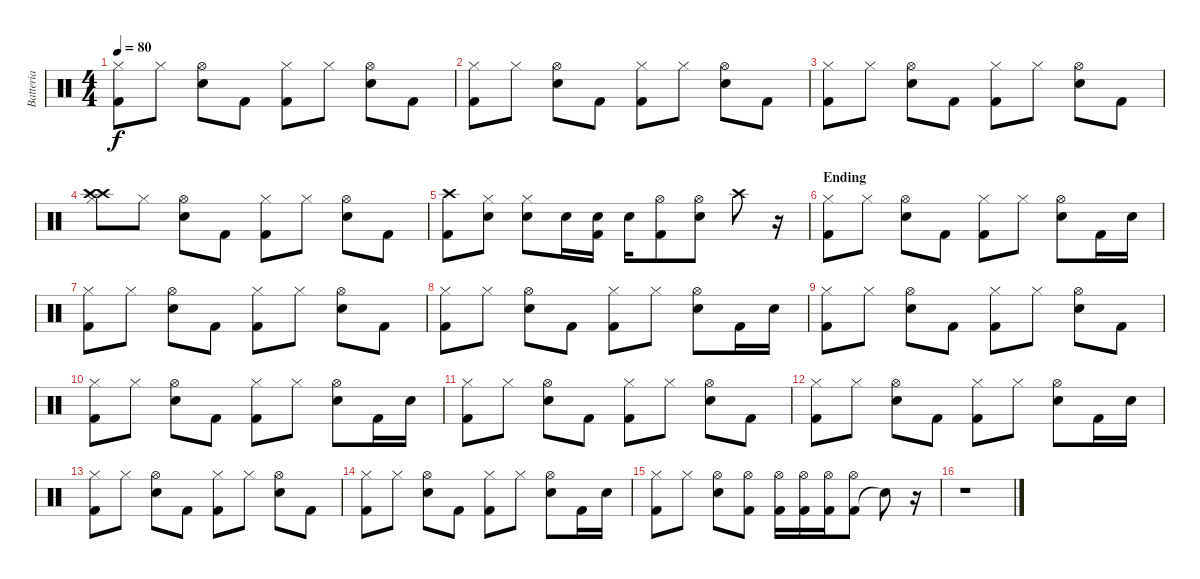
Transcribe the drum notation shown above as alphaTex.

\track ("Batteria" "Batteria") {instrument percussion}
\staff {score}
\articulation defaults
\ts (4 4)
\tempo 80
\clef neutral
\ks c
("Kick (hit) 2" "Hi-Hat (closed)").8{dy f} "Hi-Hat (closed)".8 ("Electric Snare (hit)" "Hi-Hat (open)").8 "Kick (hit) 2".8 ("Kick (hit) 2" "Hi-Hat (closed)").8 "Hi-Hat (closed)".8 ("Electric Snare (hit)" "Hi-Hat (open)").8 "Kick (hit) 2".8 |
("Kick (hit) 2" "Hi-Hat (closed)").8 "Hi-Hat (closed)".8 ("Electric Snare (hit)" "Hi-Hat (open)").8 "Kick (hit) 2".8 ("Kick (hit) 2" "Hi-Hat (closed)").8 "Hi-Hat (closed)".8 ("Electric Snare (hit)" "Hi-Hat (open)").8 "Kick (hit) 2".8 |
("Kick (hit) 2" "Hi-Hat (closed)").8 "Hi-Hat (closed)".8 ("Electric Snare (hit)" "Hi-Hat (open)").8 "Kick (hit) 2".8 ("Kick (hit) 2" "Hi-Hat (closed)").8 "Hi-Hat (closed)".8 ("Electric Snare (hit)" "Hi-Hat (open)").8 "Kick (hit) 2".8 |
("Crash high (hit)" "Hi-Hat (closed)" "Crash high (hit)").8 "Hi-Hat (closed)".8 ("Electric Snare (hit)" "Hi-Hat (open)").8 "Kick (hit) 2".8 ("Kick (hit) 2" "Hi-Hat (closed)").8 "Hi-Hat (closed)".8 ("Electric Snare (hit)" "Hi-Hat (open)").8 "Kick (hit) 2".8 |
("Kick (hit) 2" "Crash high (hit)").8 ("Electric Snare (hit)" "Hi-Hat (closed)").8 ("Electric Snare (hit)" "Hi-Hat (closed)").8 "Electric Snare (hit)".16 ("Kick (hit) 2" "Electric Snare (hit)").16 "Electric Snare (hit)".16 ("Kick (hit) 2" "Hi-Hat (open)").8 ("Electric Snare (hit)" "Hi-Hat (open)").8 "Crash high (hit)".8 r.16 |
\section ("" "Ending")
("Kick (hit) 2" "Hi-Hat (closed)").8{volume 10} "Hi-Hat (closed)".8 ("Electric Snare (hit)" "Hi-Hat (open)").8 "Kick (hit) 2".8 ("Kick (hit) 2" "Hi-Hat (closed)").8 "Hi-Hat (closed)".8 ("Electric Snare (hit)" "Hi-Hat (open)").8 "Kick (hit) 2".16 "Electric Snare (hit)".16 |
("Kick (hit) 2" "Hi-Hat (closed)").8 "Hi-Hat (closed)".8 ("Electric Snare (hit)" "Hi-Hat (open)").8 "Kick (hit) 2".8 ("Kick (hit) 2" "Hi-Hat (closed)").8 "Hi-Hat (closed)".8 ("Electric Snare (hit)" "Hi-Hat (open)").8 "Kick (hit) 2".8 |
("Kick (hit) 2" "Hi-Hat (closed)").8 "Hi-Hat (closed)".8 ("Electric Snare (hit)" "Hi-Hat (open)").8 "Kick (hit) 2".8 ("Kick (hit) 2" "Hi-Hat (closed)").8 "Hi-Hat (closed)".8 ("Electric Snare (hit)" "Hi-Hat (open)").8 "Kick (hit) 2".16 "Electric Snare (hit)".16 |
("Kick (hit) 2" "Hi-Hat (closed)").8 "Hi-Hat (closed)".8 ("Electric Snare (hit)" "Hi-Hat (open)").8 "Kick (hit) 2".8 ("Kick (hit) 2" "Hi-Hat (closed)").8 "Hi-Hat (closed)".8 ("Electric Snare (hit)" "Hi-Hat (open)").8 "Kick (hit) 2".8 |
("Kick (hit) 2" "Hi-Hat (closed)").8 "Hi-Hat (closed)".8 ("Electric Snare (hit)" "Hi-Hat (open)").8 "Kick (hit) 2".8 ("Kick (hit) 2" "Hi-Hat (closed)").8 "Hi-Hat (closed)".8 ("Electric Snare (hit)" "Hi-Hat (open)").8 "Kick (hit) 2".16 "Electric Snare (hit)".16 |
("Kick (hit) 2" "Hi-Hat (closed)").8 "Hi-Hat (closed)".8 ("Electric Snare (hit)" "Hi-Hat (open)").8 "Kick (hit) 2".8 ("Kick (hit) 2" "Hi-Hat (closed)").8 "Hi-Hat (closed)".8 ("Electric Snare (hit)" "Hi-Hat (open)").8 "Kick (hit) 2".8 |
("Kick (hit) 2" "Hi-Hat (closed)").8 "Hi-Hat (closed)".8 ("Electric Snare (hit)" "Hi-Hat (open)").8 "Kick (hit) 2".8 ("Kick (hit) 2" "Hi-Hat (closed)").8 "Hi-Hat (closed)".8 ("Electric Snare (hit)" "Hi-Hat (open)").8 "Kick (hit) 2".16 "Electric Snare (hit)".16 |
("Kick (hit) 2" "Hi-Hat (closed)").8 "Hi-Hat (closed)".8 ("Electric Snare (hit)" "Hi-Hat (open)").8 "Kick (hit) 2".8 ("Kick (hit) 2" "Hi-Hat (closed)").8 "Hi-Hat (closed)".8 ("Electric Snare (hit)" "Hi-Hat (open)").8 "Kick (hit) 2".8 |
("Kick (hit) 2" "Hi-Hat (closed)").8 "Hi-Hat (closed)".8 ("Electric Snare (hit)" "Hi-Hat (open)").8 "Kick (hit) 2".8 ("Kick (hit) 2" "Hi-Hat (closed)").8 "Hi-Hat (closed)".8 ("Electric Snare (hit)" "Hi-Hat (open)").8 "Kick (hit) 2".16 "Electric Snare (hit)".16 |
("Kick (hit) 2" "Hi-Hat (closed)").8 "Hi-Hat (closed)".8 ("Electric Snare (hit)" "Hi-Hat (open)").8 ("Kick (hit) 2" "Hi-Hat (open)").8 ("Kick (hit) 2" "Hi-Hat (open)").16 ("Kick (hit) 2" "Hi-Hat (open)").16 ("Kick (hit) 2" "Hi-Hat (open)").16 ("Kick (hit) 2" "Hi-Hat (open)").8 "Snare (hit)"{t}.8 r.16 |
r.1
